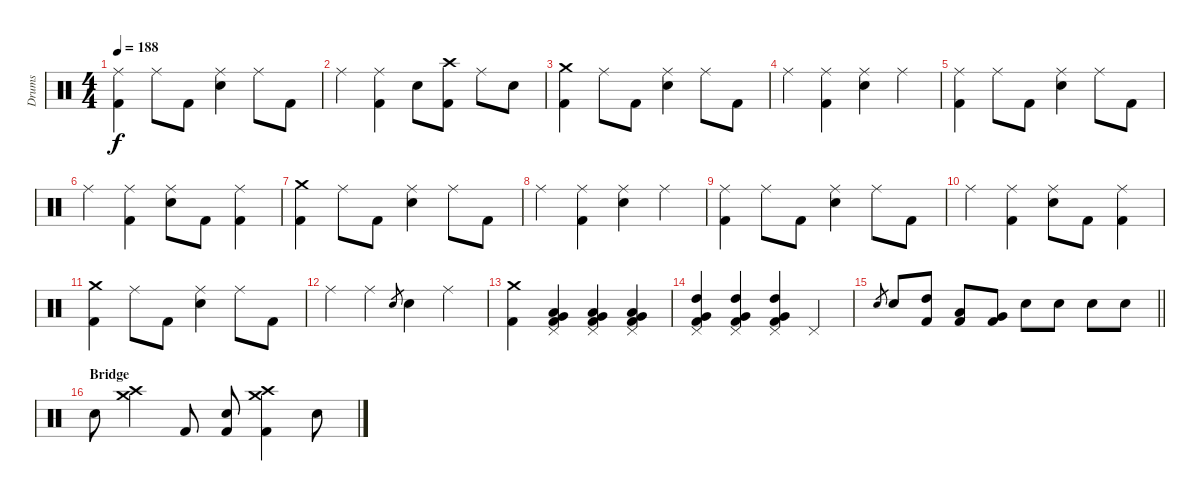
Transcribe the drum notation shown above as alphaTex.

\track ("Drums" "Drums") {instrument percussion}
\staff {score}
\articulation defaults
\ts (4 4)
\tempo 188
\clef neutral
\ks c
("Ride (middle)" "Kick (hit) 2").4{dy f} "Ride (middle)".8 "Kick (hit) 2".8 ("Ride (middle)" "Electric Snare (hit)").4 "Ride (middle)".8 "Kick (hit) 2".8 |
"Ride (middle)".4 ("Ride (middle)" "Kick (hit) 2").4 "Electric Snare (hit)".8 ("Crash high (hit)" "Kick (hit) 2").8 "Ride (middle)".8 "Electric Snare (hit)".8 |
("Crash medium (hit)" "Kick (hit) 2").4 "Ride (middle)".8 "Kick (hit) 2".8 ("Ride (middle)" "Electric Snare (hit)").4 "Ride (middle)".8 "Kick (hit) 2".8 |
"Ride (middle)".4 ("Ride (middle)" "Kick (hit) 2").4 ("Ride (middle)" "Electric Snare (hit)").4 "Ride (middle)".4 |
("Ride (middle)" "Kick (hit) 2").4 "Ride (middle)".8 "Kick (hit) 2".8 ("Ride (middle)" "Electric Snare (hit)").4 "Ride (middle)".8 "Kick (hit) 2".8 |
"Ride (middle)".4 ("Ride (middle)" "Kick (hit) 2").4 ("Ride (middle)" "Electric Snare (hit)").8 "Kick (hit) 2".8 ("Ride (middle)" "Kick (hit) 2").4 |
("Crash medium (hit)" "Kick (hit) 2").4 "Ride (middle)".8 "Kick (hit) 2".8 ("Ride (middle)" "Electric Snare (hit)").4 "Ride (middle)".8 "Kick (hit) 2".8 |
"Ride (middle)".4 ("Ride (middle)" "Kick (hit) 2").4 ("Ride (middle)" "Electric Snare (hit)").4 "Ride (middle)".4 |
("Ride (middle)" "Kick (hit) 2").4 "Ride (middle)".8 "Kick (hit) 2".8 ("Ride (middle)" "Electric Snare (hit)").4 "Ride (middle)".8 "Kick (hit) 2".8 |
"Ride (middle)".4 ("Ride (middle)" "Kick (hit) 2").4 ("Ride (middle)" "Electric Snare (hit)").8 "Kick (hit) 2".8 ("Ride (middle)" "Kick (hit) 2").4 |
("Crash medium (hit)" "Kick (hit) 2").4 "Ride (middle)".8 "Kick (hit) 2".8 ("Ride (middle)" "Electric Snare (hit)").4 "Ride (middle)".8 "Kick (hit) 2".8 |
"Ride (middle)".4 "Ride (middle)".4 "Electric Snare (hit)".8{gr} "Electric Snare (hit)".4 "Ride (middle)".4 |
("Crash medium (hit)" "Kick (hit) 2").4 ("Pedal Hi-Hat (hit)" "Low Tom (hit)" "Very Low Tom (hit)" "Kick (hit) 2").4 ("Pedal Hi-Hat (hit)" "Low Tom (hit)" "Very Low Tom (hit)" "Kick (hit) 2").4 ("Pedal Hi-Hat (hit)" "Low Tom (hit)" "Very Low Tom (hit)" "Kick (hit) 2").4 |
("Pedal Hi-Hat (hit)" "High Tom (hit)" "Very Low Tom (hit)" "Kick (hit) 2").4 ("Pedal Hi-Hat (hit)" "High Tom (hit)" "Very Low Tom (hit)" "Kick (hit) 2").4 ("Pedal Hi-Hat (hit)" "High Tom (hit)" "Very Low Tom (hit)" "Kick (hit) 2").4 "Pedal Hi-Hat (hit)".4 |
\barLineRight lightlight "Electric Snare (hit)".8{gr} "Electric Snare (hit)".8
("High Tom (hit)" "Kick (hit) 2").8 ("Low Tom (hit)" "Kick (hit) 2").8 ("Very Low Tom (hit)" "Kick (hit) 2").8 "Electric Snare (hit)".8 "Electric Snare (hit)".8 "Electric Snare (hit)".8 "Electric Snare (hit)".8 |
\section ("" "Bridge")
"Electric Snare (hit)".8 ("Crash medium (hit)" "Crash high (hit)").4 "Kick (hit) 2".8 ("Electric Snare (hit)" "Kick (hit) 2").8 ("Crash medium (hit)" "Crash high (hit)" "Kick (hit) 2").4 "Electric Snare (hit)".8
